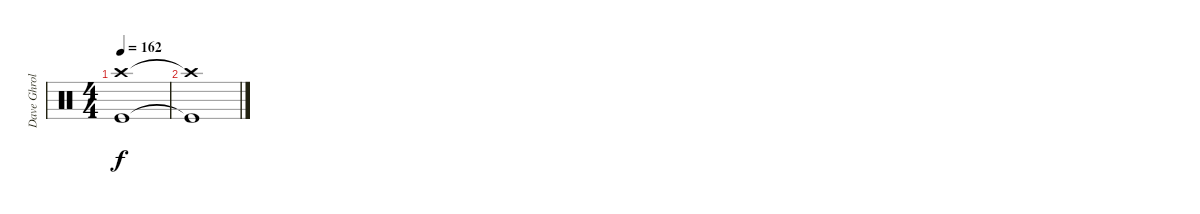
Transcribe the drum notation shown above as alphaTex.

\track ("Dave Ghrol" "Dave Ghrol") {instrument percussion}
\staff {score}
\articulation defaults
\ts (4 4)
\tempo 162
\clef neutral
\ks c
("Crash high (hit)" "Kick (hit)").1{dy f} |
("Crash high (hit)"{t} "Kick (hit)"{t}).1
